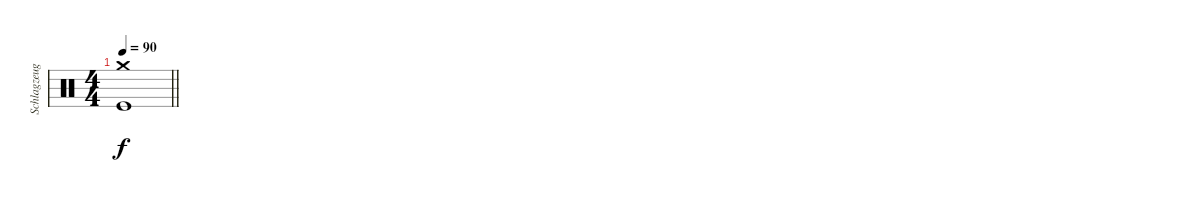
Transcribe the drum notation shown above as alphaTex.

\track ("Schlagzeug" "Schlagzeug") {instrument percussion}
\staff {score}
\articulation defaults
\ts (4 4)
\tempo 90
\clef neutral
\barLineRight lightlight
\ks c
("Crash medium (hit)" "Kick (hit)").1{dy f}
